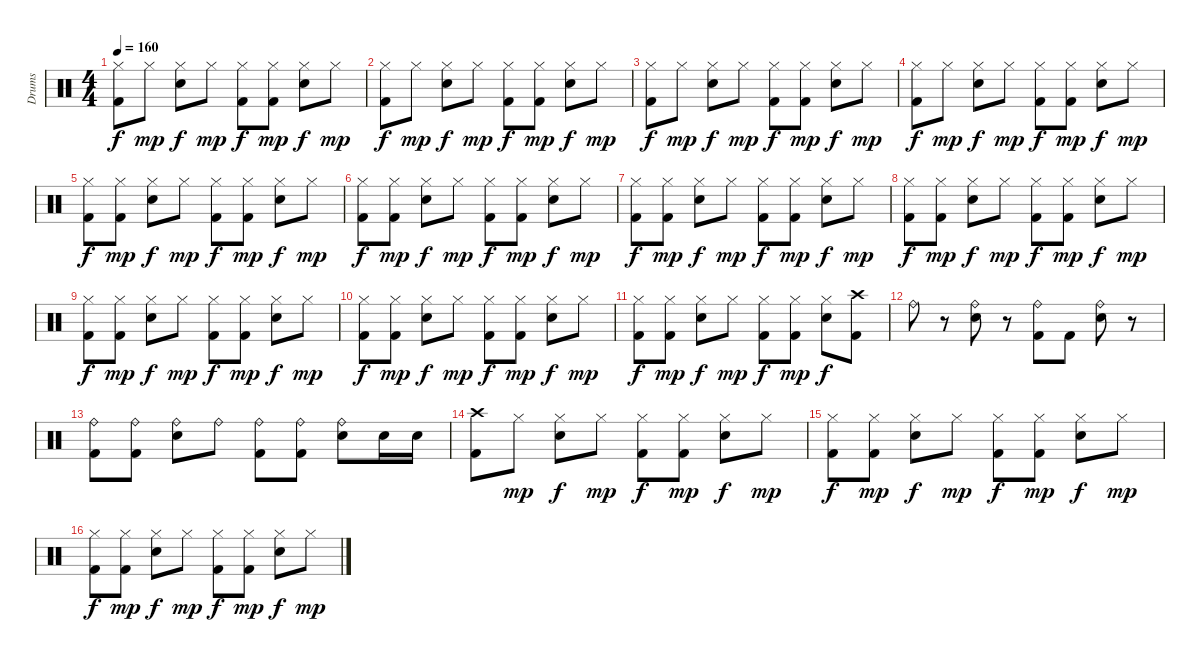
\track ("Drums" "Drums") {instrument percussion}
\staff {score}
\articulation defaults
\ts (4 4)
\tempo 160
\clef neutral
\ks c
("Kick (hit) 2" "Hi-Hat (closed)").8{dy f} "Hi-Hat (closed)".8{dy mp} ("Snare (hit) 2" "Hi-Hat (closed)").8{dy f} "Hi-Hat (closed)".8{dy mp} ("Kick (hit) 2" "Hi-Hat (closed)").8{dy f} ("Kick (hit) 2" "Hi-Hat (closed)").8{dy mp} ("Snare (hit) 2" "Hi-Hat (closed)").8{dy f} "Hi-Hat (closed)".8{dy mp} |
("Kick (hit) 2" "Hi-Hat (closed)").8{dy f} "Hi-Hat (closed)".8{dy mp} ("Snare (hit) 2" "Hi-Hat (closed)").8{dy f} "Hi-Hat (closed)".8{dy mp} ("Kick (hit) 2" "Hi-Hat (closed)").8{dy f} ("Kick (hit) 2" "Hi-Hat (closed)").8{dy mp} ("Snare (hit) 2" "Hi-Hat (closed)").8{dy f} "Hi-Hat (closed)".8{dy mp} |
("Kick (hit) 2" "Hi-Hat (closed)").8{dy f} "Hi-Hat (closed)".8{dy mp} ("Snare (hit) 2" "Hi-Hat (closed)").8{dy f} "Hi-Hat (closed)".8{dy mp} ("Kick (hit) 2" "Hi-Hat (closed)").8{dy f} ("Kick (hit) 2" "Hi-Hat (closed)").8{dy mp} ("Snare (hit) 2" "Hi-Hat (closed)").8{dy f} "Hi-Hat (closed)".8{dy mp} |
("Kick (hit) 2" "Hi-Hat (closed)").8{dy f} "Hi-Hat (closed)".8{dy mp} ("Snare (hit) 2" "Hi-Hat (closed)").8{dy f} "Hi-Hat (closed)".8{dy mp} ("Kick (hit) 2" "Hi-Hat (closed)").8{dy f} ("Kick (hit) 2" "Hi-Hat (closed)").8{dy mp} ("Snare (hit) 2" "Hi-Hat (closed)").8{dy f} "Hi-Hat (closed)".8{dy mp} |
("Kick (hit) 2" "Hi-Hat (closed)").8{dy f} ("Kick (hit) 2" "Hi-Hat (closed)").8{dy mp} ("Snare (hit) 2" "Hi-Hat (closed)").8{dy f} "Hi-Hat (closed)".8{dy mp} ("Kick (hit) 2" "Hi-Hat (closed)").8{dy f} ("Kick (hit) 2" "Hi-Hat (closed)").8{dy mp} ("Snare (hit) 2" "Hi-Hat (closed)").8{dy f} "Hi-Hat (closed)".8{dy mp} |
("Kick (hit) 2" "Hi-Hat (closed)").8{dy f} ("Kick (hit) 2" "Hi-Hat (closed)").8{dy mp} ("Snare (hit) 2" "Hi-Hat (closed)").8{dy f} "Hi-Hat (closed)".8{dy mp} ("Kick (hit) 2" "Hi-Hat (closed)").8{dy f} ("Kick (hit) 2" "Hi-Hat (closed)").8{dy mp} ("Snare (hit) 2" "Hi-Hat (closed)").8{dy f} "Hi-Hat (closed)".8{dy mp} |
("Kick (hit) 2" "Hi-Hat (closed)").8{dy f} ("Kick (hit) 2" "Hi-Hat (closed)").8{dy mp} ("Snare (hit) 2" "Hi-Hat (closed)").8{dy f} "Hi-Hat (closed)".8{dy mp} ("Kick (hit) 2" "Hi-Hat (closed)").8{dy f} ("Kick (hit) 2" "Hi-Hat (closed)").8{dy mp} ("Snare (hit) 2" "Hi-Hat (closed)").8{dy f} "Hi-Hat (closed)".8{dy mp} |
("Kick (hit) 2" "Hi-Hat (closed)").8{dy f} ("Kick (hit) 2" "Hi-Hat (closed)").8{dy mp} ("Snare (hit) 2" "Hi-Hat (closed)").8{dy f} "Hi-Hat (closed)".8{dy mp} ("Kick (hit) 2" "Hi-Hat (closed)").8{dy f} ("Kick (hit) 2" "Hi-Hat (closed)").8{dy mp} ("Snare (hit) 2" "Hi-Hat (closed)").8{dy f} "Hi-Hat (closed)".8{dy mp} |
("Kick (hit) 2" "Hi-Hat (closed)").8{dy f} ("Kick (hit) 2" "Hi-Hat (closed)").8{dy mp} ("Snare (hit) 2" "Hi-Hat (closed)").8{dy f} "Hi-Hat (closed)".8{dy mp} ("Kick (hit) 2" "Hi-Hat (closed)").8{dy f} ("Kick (hit) 2" "Hi-Hat (closed)").8{dy mp} ("Snare (hit) 2" "Hi-Hat (closed)").8{dy f} "Hi-Hat (closed)".8{dy mp} |
("Kick (hit) 2" "Hi-Hat (closed)").8{dy f} ("Kick (hit) 2" "Hi-Hat (closed)").8{dy mp} ("Snare (hit) 2" "Hi-Hat (closed)").8{dy f} "Hi-Hat (closed)".8{dy mp} ("Kick (hit) 2" "Hi-Hat (closed)").8{dy f} ("Kick (hit) 2" "Hi-Hat (closed)").8{dy mp} ("Snare (hit) 2" "Hi-Hat (closed)").8{dy f} "Hi-Hat (closed)".8{dy mp} |
("Kick (hit) 2" "Hi-Hat (closed)").8{dy f} ("Kick (hit) 2" "Hi-Hat (closed)").8{dy mp} ("Snare (hit) 2" "Hi-Hat (closed)").8{dy f} "Hi-Hat (closed)".8{dy mp} ("Kick (hit) 2" "Hi-Hat (closed)").8{dy f} ("Kick (hit) 2" "Hi-Hat (closed)").8{dy mp} ("Snare (hit) 2" "Hi-Hat (closed)").8{dy f} ("Kick (hit) 2" "Crash high (hit)").8 |
"Ride (bell)".8 r.8 ("Snare (hit) 2" "Ride (bell)").8 r.8 ("Kick (hit) 2" "Ride (bell)").8 "Kick (hit) 2".8 ("Snare (hit) 2" "Ride (bell)").8 r.8 |
("Kick (hit) 2" "Ride (bell)").8 ("Kick (hit) 2" "Ride (bell)").8 ("Snare (hit) 2" "Ride (bell)").8 "Ride (bell)".8 ("Kick (hit) 2" "Ride (bell)").8 ("Kick (hit) 2" "Ride (bell)").8 ("Snare (hit) 2" "Ride (bell)").8 "Snare (hit) 2".16 "Snare (hit) 2".16 |
("Kick (hit) 2" "Crash high (hit)").8 "Hi-Hat (closed)".8{dy mp} ("Snare (hit) 2" "Hi-Hat (closed)").8{dy f} "Hi-Hat (closed)".8{dy mp} ("Kick (hit) 2" "Hi-Hat (closed)").8{dy f} ("Kick (hit) 2" "Hi-Hat (closed)").8{dy mp} ("Snare (hit) 2" "Hi-Hat (closed)").8{dy f} "Hi-Hat (closed)".8{dy mp} |
("Kick (hit) 2" "Hi-Hat (closed)").8{dy f} ("Kick (hit) 2" "Hi-Hat (closed)").8{dy mp} ("Snare (hit) 2" "Hi-Hat (closed)").8{dy f} "Hi-Hat (closed)".8{dy mp} ("Kick (hit) 2" "Hi-Hat (closed)").8{dy f} ("Kick (hit) 2" "Hi-Hat (closed)").8{dy mp} ("Snare (hit) 2" "Hi-Hat (closed)").8{dy f} "Hi-Hat (closed)".8{dy mp} |
("Kick (hit) 2" "Hi-Hat (closed)").8{dy f} ("Kick (hit) 2" "Hi-Hat (closed)").8{dy mp} ("Snare (hit) 2" "Hi-Hat (closed)").8{dy f} "Hi-Hat (closed)".8{dy mp} ("Kick (hit) 2" "Hi-Hat (closed)").8{dy f} ("Kick (hit) 2" "Hi-Hat (closed)").8{dy mp} ("Snare (hit) 2" "Hi-Hat (closed)").8{dy f} "Hi-Hat (closed)".8{dy mp}
